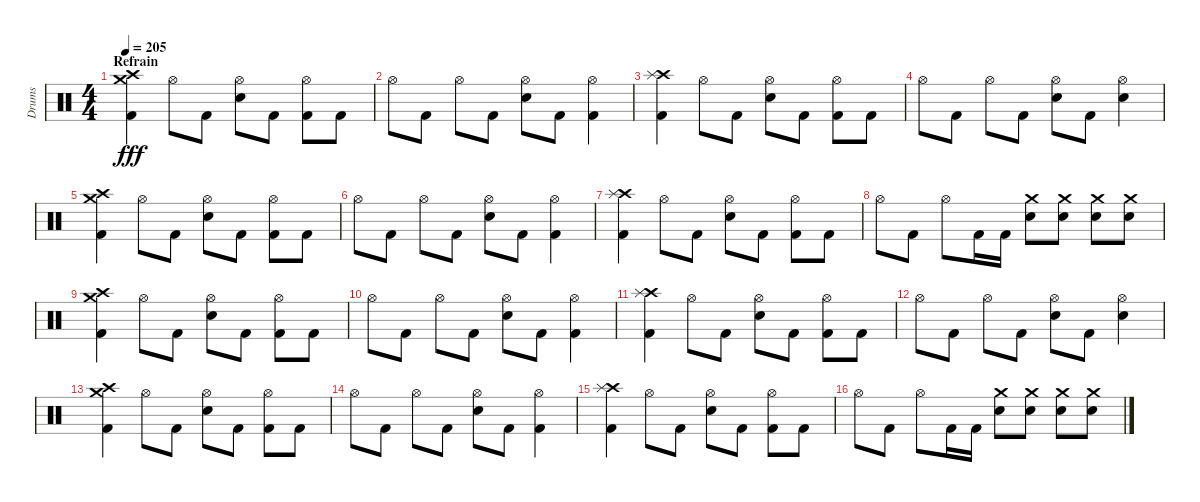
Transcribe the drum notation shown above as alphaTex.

\track ("Drums" "Drums") {instrument percussion}
\staff {score}
\articulation defaults
\ts (4 4)
\section ("" "Refrain ")
\tempo 205
\clef neutral
\ks c
("Crash medium (hit)" "Crash high (hit)" "Kick (hit) 2").4{dy fff} "Hi-Hat (open)".8 "Kick (hit) 2".8 ("Hi-Hat (open)" "Electric Snare (hit)").8 "Kick (hit) 2".8 ("Hi-Hat (open)" "Kick (hit) 2").8 "Kick (hit) 2".8 |
"Hi-Hat (open)".8 "Kick (hit) 2".8 "Hi-Hat (open)".8 "Kick (hit) 2".8 ("Hi-Hat (open)" "Electric Snare (hit)").8 "Kick (hit) 2".8 ("Hi-Hat (open)" "Kick (hit) 2").4 |
("Crash high (hit)" "Splash (hit)" "Kick (hit) 2").4 "Hi-Hat (open)".8 "Kick (hit) 2".8 ("Hi-Hat (open)" "Electric Snare (hit)").8 "Kick (hit) 2".8 ("Hi-Hat (open)" "Kick (hit) 2").8 "Kick (hit) 2".8 |
"Hi-Hat (open)".8 "Kick (hit) 2".8 "Hi-Hat (open)".8 "Kick (hit) 2".8 ("Hi-Hat (open)" "Electric Snare (hit)").8 "Kick (hit) 2".8 ("Hi-Hat (open)" "Electric Snare (hit)").4 |
("Crash medium (hit)" "Crash high (hit)" "Kick (hit) 2").4 "Hi-Hat (open)".8 "Kick (hit) 2".8 ("Hi-Hat (open)" "Electric Snare (hit)").8 "Kick (hit) 2".8 ("Hi-Hat (open)" "Kick (hit) 2").8 "Kick (hit) 2".8 |
"Hi-Hat (open)".8 "Kick (hit) 2".8 "Hi-Hat (open)".8 "Kick (hit) 2".8 ("Hi-Hat (open)" "Electric Snare (hit)").8 "Kick (hit) 2".8 ("Hi-Hat (open)" "Kick (hit) 2").4 |
("Crash high (hit)" "Splash (hit)" "Kick (hit) 2").4 "Hi-Hat (open)".8 "Kick (hit) 2".8 ("Hi-Hat (open)" "Electric Snare (hit)").8 "Kick (hit) 2".8 ("Hi-Hat (open)" "Kick (hit) 2").8 "Kick (hit) 2".8 |
"Hi-Hat (open)".8 "Kick (hit) 2".8 "Hi-Hat (open)".8 "Kick (hit) 2".16 "Kick (hit) 2".16 ("Crash medium (hit)" "Electric Snare (hit)").8 ("Crash medium (hit)" "Electric Snare (hit)").8 ("Crash medium (hit)" "Electric Snare (hit)").8 ("Crash medium (hit)" "Electric Snare (hit)").8 |
("Crash medium (hit)" "Crash high (hit)" "Kick (hit) 2").4 "Hi-Hat (open)".8 "Kick (hit) 2".8 ("Hi-Hat (open)" "Electric Snare (hit)").8 "Kick (hit) 2".8 ("Hi-Hat (open)" "Kick (hit) 2").8 "Kick (hit) 2".8 |
"Hi-Hat (open)".8 "Kick (hit) 2".8 "Hi-Hat (open)".8 "Kick (hit) 2".8 ("Hi-Hat (open)" "Electric Snare (hit)").8 "Kick (hit) 2".8 ("Hi-Hat (open)" "Kick (hit) 2").4 |
("Crash high (hit)" "Splash (hit)" "Kick (hit) 2").4 "Hi-Hat (open)".8 "Kick (hit) 2".8 ("Hi-Hat (open)" "Electric Snare (hit)").8 "Kick (hit) 2".8 ("Hi-Hat (open)" "Kick (hit) 2").8 "Kick (hit) 2".8 |
"Hi-Hat (open)".8 "Kick (hit) 2".8 "Hi-Hat (open)".8 "Kick (hit) 2".8 ("Hi-Hat (open)" "Electric Snare (hit)").8 "Kick (hit) 2".8 ("Hi-Hat (open)" "Electric Snare (hit)").4 |
("Crash medium (hit)" "Crash high (hit)" "Kick (hit) 2").4 "Hi-Hat (open)".8 "Kick (hit) 2".8 ("Hi-Hat (open)" "Electric Snare (hit)").8 "Kick (hit) 2".8 ("Hi-Hat (open)" "Kick (hit) 2").8 "Kick (hit) 2".8 |
"Hi-Hat (open)".8 "Kick (hit) 2".8 "Hi-Hat (open)".8 "Kick (hit) 2".8 ("Hi-Hat (open)" "Electric Snare (hit)").8 "Kick (hit) 2".8 ("Hi-Hat (open)" "Kick (hit) 2").4 |
("Crash high (hit)" "Splash (hit)" "Kick (hit) 2").4 "Hi-Hat (open)".8 "Kick (hit) 2".8 ("Hi-Hat (open)" "Electric Snare (hit)").8 "Kick (hit) 2".8 ("Hi-Hat (open)" "Kick (hit) 2").8 "Kick (hit) 2".8 |
"Hi-Hat (open)".8 "Kick (hit) 2".8 "Hi-Hat (open)".8 "Kick (hit) 2".16 "Kick (hit) 2".16 ("Crash medium (hit)" "Electric Snare (hit)").8 ("Crash medium (hit)" "Electric Snare (hit)").8 ("Crash medium (hit)" "Electric Snare (hit)").8 ("Crash medium (hit)" "Electric Snare (hit)").8
